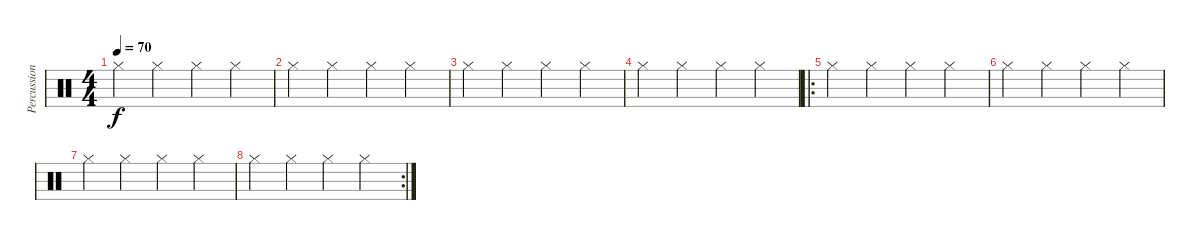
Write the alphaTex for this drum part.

\track ("Percussion" "Percussion") {instrument percussion}
\staff {score}
\articulation defaults
\ts (4 4)
\tempo 70
\clef neutral
\ks c "Hi-Hat (closed)".4{dy f} "Hi-Hat (closed)".4 "Hi-Hat (closed)".4 "Hi-Hat (closed)".4
|
"Hi-Hat (closed)".4 "Hi-Hat (closed)".4 "Hi-Hat (closed)".4 "Hi-Hat (closed)".4 |
"Hi-Hat (closed)".4 "Hi-Hat (closed)".4 "Hi-Hat (closed)".4 "Hi-Hat (closed)".4 |
"Hi-Hat (closed)".4 "Hi-Hat (closed)".4 "Hi-Hat (closed)".4 "Hi-Hat (closed)".4 |
\ro "Hi-Hat (closed)".4 "Hi-Hat (closed)".4 "Hi-Hat (closed)".4 "Hi-Hat (closed)".4
|
"Hi-Hat (closed)".4 "Hi-Hat (closed)".4 "Hi-Hat (closed)".4 "Hi-Hat (closed)".4 |
"Hi-Hat (closed)".4 "Hi-Hat (closed)".4 "Hi-Hat (closed)".4 "Hi-Hat (closed)".4 |
\rc 2 "Hi-Hat (closed)".4 "Hi-Hat (closed)".4 "Hi-Hat (closed)".4 "Hi-Hat (closed)".4
